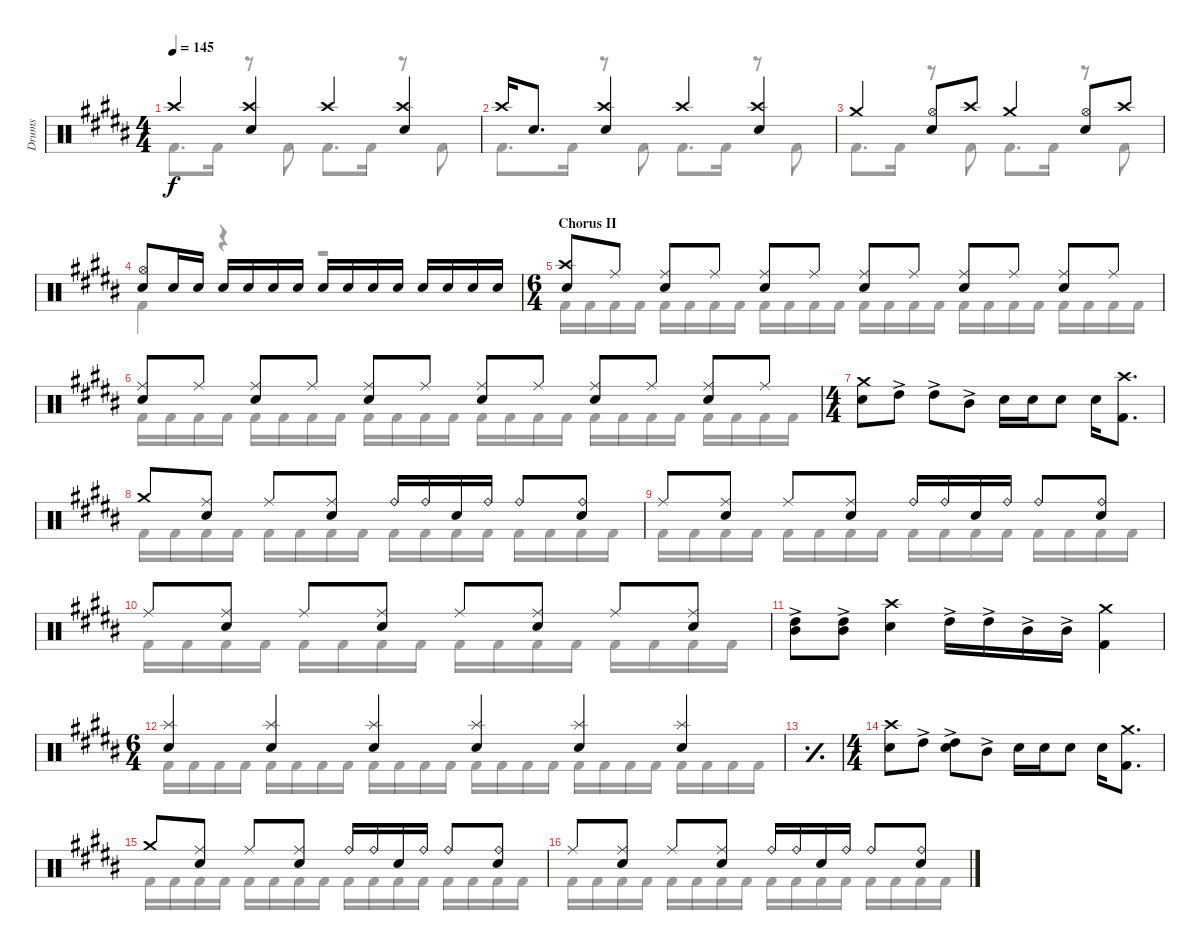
\defaultSystemsLayout 4
\bracketExtendMode groupsimilarinstruments
\otherSystemsTrackNameOrientation horizontal
\track ("Drumkit" "Drums") {multiBarRest instrument percussion}
\staff {score}
\articulation defaults
\voice
\ts (4 4)
\tempo 145
\clef neutral
\ks b "Crash high (hit)"{acc forcenatural}.4{dy f}
("Snare (hit) 2"{acc forcenatural} "Crash high (hit)"{acc forcenatural}).4 "Crash high (hit)"{acc forcenatural}.4 ("Snare (hit) 2"{acc forcenatural} "Crash high (hit)"{acc forcenatural}).4 |
"Crash high (hit)"{acc forcenatural}.16 "Snare (hit) 2"{acc forcenatural}.8{d} ("Snare (hit) 2"{acc forcenatural} "Crash high (hit)"{acc forcenatural}).4 "Crash high (hit)"{acc forcenatural}.4 ("Snare (hit) 2"{acc forcenatural} "Crash high (hit)"{acc forcenatural}).4 |
"Crash medium (hit)"{acc forcenatural}.4 ("Hi-Hat (open)"{acc forcenatural} "Snare (hit) 2"{acc forcenatural}).8 "Crash high (hit)"{acc forcenatural}.8 "Crash medium (hit)"{acc forcenatural}.4 ("Snare (hit) 2"{acc forcenatural} "Hi-Hat (open)"{acc forcenatural}).8 "Crash high (hit)"{acc forcenatural}.8 |
("Hi-Hat (open)"{acc forcenatural} "Snare (hit) 2"{acc forcenatural}).8 "Snare (hit) 2"{acc forcenatural}.16 "Snare (hit) 2"{acc forcenatural}.16 "Snare (hit) 2"{acc forcenatural}.16 "Snare (hit) 2"{acc forcenatural}.16 "Snare (hit) 2"{acc forcenatural}.16 "Snare (hit) 2"{acc forcenatural}.16 "Snare (hit) 2"{acc forcenatural}.16 "Snare (hit) 2"{acc forcenatural}.16 "Snare (hit) 2"{acc forcenatural}.16 "Snare (hit) 2"{acc forcenatural}.16 "Snare (hit) 2"{acc forcenatural}.16 "Snare (hit) 2"{acc forcenatural}.16 "Snare (hit) 2"{acc forcenatural}.16 "Snare (hit) 2"{acc forcenatural}.16 |
\ts (6 4)
\beaming (8 2 2 2 2 2 2)
\section ("" "Chorus II")
("Snare (hit) 2"{acc forcenatural} "Crash high (hit)"{acc forcenatural}).8 "Ride (middle)"{acc forcenatural}.8 ("Snare (hit) 2"{acc forcenatural} "Ride (middle)"{acc forcenatural}).8 "Ride (middle)"{acc forcenatural}.8 ("Snare (hit) 2"{acc forcenatural} "Ride (middle)"{acc forcenatural}).8 "Ride (middle)"{acc forcenatural}.8 ("Snare (hit) 2"{acc forcenatural} "Ride (middle)"{acc forcenatural}).8 "Ride (middle)"{acc forcenatural}.8 ("Snare (hit) 2"{acc forcenatural} "Ride (middle)"{acc forcenatural}).8 "Ride (middle)"{acc forcenatural}.8 ("Snare (hit) 2"{acc forcenatural} "Ride (middle)"{acc forcenatural}).8 "Ride (middle)"{acc forcenatural}.8 |
("Snare (hit) 2"{acc forcenatural} "Ride (middle)"{acc forcenatural}).8 "Ride (middle)"{acc forcenatural}.8 ("Snare (hit) 2"{acc forcenatural} "Ride (middle)"{acc forcenatural}).8 "Ride (middle)"{acc forcenatural}.8 ("Snare (hit) 2"{acc forcenatural} "Ride (middle)"{acc forcenatural}).8 "Ride (middle)"{acc forcenatural}.8 ("Snare (hit) 2"{acc forcenatural} "Ride (middle)"{acc forcenatural}).8 "Ride (middle)"{acc forcenatural}.8 ("Snare (hit) 2"{acc forcenatural} "Ride (middle)"{acc forcenatural}).8 "Ride (middle)"{acc forcenatural}.8 ("Snare (hit) 2"{acc forcenatural} "Ride (middle)"{acc forcenatural}).8 "Ride (middle)"{acc forcenatural}.8 |
\ts (4 4)
("Snare (hit) 2"{acc forcenatural} "Crash medium (hit)"{acc forcenatural}).8 "High Tom (hit)"{ac acc forcenatural}.8 "High Tom (hit)"{ac acc forcenatural}.8 "Mid Tom (hit)"{ac acc forcenatural}.8 "Snare (hit) 2"{acc forcenatural}.16 "Snare (hit) 2"{acc forcenatural}.16 "Snare (hit) 2"{acc forcenatural}.8 "Snare (hit) 2"{acc forcenatural}.16 ("Kick (hit) 2"{acc forcenatural} "Crash high (hit)"{acc forcenatural}).8{d} |
"Crash medium (hit)"{acc forcenatural}.8 ("Ride (middle)"{acc forcenatural} "Snare (hit) 2"{acc forcenatural}).8 "Ride (middle)"{acc forcenatural}.8 ("Ride (middle)"{acc forcenatural} "Snare (hit) 2"{acc forcenatural}).8 "Ride (bell)"{acc forcenatural}.16 "Ride (bell)"{acc forcenatural}.16 "Snare (hit) 2"{acc forcenatural}.16 "Ride (bell)"{acc forcenatural}.16 "Ride (bell)"{acc forcenatural}.8 ("Snare (hit) 2"{acc forcenatural} "Ride (bell)"{acc forcenatural}).8 |
"Ride (middle)"{acc forcenatural}.8 ("Ride (middle)"{acc forcenatural} "Snare (hit) 2"{acc forcenatural}).8 "Ride (middle)"{acc forcenatural}.8 ("Ride (middle)"{acc forcenatural} "Snare (hit) 2"{acc forcenatural}).8 "Ride (bell)"{acc forcenatural}.16 "Ride (bell)"{acc forcenatural}.16 "Snare (hit) 2"{acc forcenatural}.16 "Ride (bell)"{acc forcenatural}.16 "Ride (bell)"{acc forcenatural}.8 ("Snare (hit) 2"{acc forcenatural} "Ride (bell)"{acc forcenatural}).8 |
"Ride (middle)"{acc forcenatural}.8 ("Snare (hit) 2"{acc forcenatural} "Ride (middle)"{acc forcenatural}).8 "Ride (middle)"{acc forcenatural}.8 ("Snare (hit) 2"{acc forcenatural} "Ride (middle)"{acc forcenatural}).8 "Ride (middle)"{acc forcenatural}.8 ("Snare (hit) 2"{acc forcenatural} "Ride (middle)"{acc forcenatural}).8 "Ride (middle)"{acc forcenatural}.8 ("Snare (hit) 2"{acc forcenatural} "Ride (middle)"{acc forcenatural}).8 |
("Mid Tom (hit)"{ac acc forcenatural} "High Tom (hit)"{ac acc forcenatural}).8 ("Mid Tom (hit)"{ac acc forcenatural} "High Tom (hit)"{ac acc forcenatural}).8 ("Snare (hit) 2"{acc forcenatural} "Crash high (hit)"{acc forcenatural}).4 "High Tom (hit)"{ac acc forcenatural}.16 "High Tom (hit)"{ac acc forcenatural}.16 "Mid Tom (hit)"{ac acc forcenatural}.16 "Mid Tom (hit)"{ac acc forcenatural}.16 ("Kick (hit) 2"{acc forcenatural} "Crash medium (hit)"{acc forcenatural}).4 |
\ts (6 4)
("Snare (hit) 2"{acc forcenatural} "Splash (hit)"{acc forcenatural}).4 ("Snare (hit) 2"{acc forcenatural} "Splash (hit)"{acc forcenatural}).4 ("Snare (hit) 2"{acc forcenatural} "Splash (hit)"{acc forcenatural}).4 ("Snare (hit) 2"{acc forcenatural} "Splash (hit)"{acc forcenatural}).4 ("Snare (hit) 2"{acc forcenatural} "Splash (hit)"{acc forcenatural}).4 ("Snare (hit) 2"{acc forcenatural} "Splash (hit)"{acc forcenatural}).4 |
\simile simple
|
\ts (4 4)
\simile none
("Snare (hit) 2"{acc forcenatural} "Crash high (hit)"{acc forcenatural}).8 "High Tom (hit)"{ac acc forcenatural}.8 ("High Tom (hit)"{ac acc forcenatural} "Snare (hit) 2"{acc forcenatural}).8 "Mid Tom (hit)"{ac acc forcenatural}.8 "Snare (hit) 2"{acc forcenatural}.16 "Snare (hit) 2"{acc forcenatural}.16 "Snare (hit) 2"{acc forcenatural}.8 "Snare (hit) 2"{acc forcenatural}.16 ("Kick (hit) 2"{acc forcenatural} "Crash medium (hit)"{acc forcenatural}).8{d} |
"Crash medium (hit)"{acc forcenatural}.8 ("Ride (middle)"{acc forcenatural} "Snare (hit) 2"{acc forcenatural}).8 "Ride (middle)"{acc forcenatural}.8 ("Ride (middle)"{acc forcenatural} "Snare (hit) 2"{acc forcenatural}).8 "Ride (bell)"{acc forcenatural}.16 "Ride (bell)"{acc forcenatural}.16 "Snare (hit) 2"{acc forcenatural}.16 "Ride (bell)"{acc forcenatural}.16 "Ride (bell)"{acc forcenatural}.8 ("Snare (hit) 2"{acc forcenatural} "Ride (bell)"{acc forcenatural}).8 |
"Ride (middle)"{acc forcenatural}.8 ("Ride (middle)"{acc forcenatural} "Snare (hit) 2"{acc forcenatural}).8 "Ride (middle)"{acc forcenatural}.8 ("Ride (middle)"{acc forcenatural} "Snare (hit) 2"{acc forcenatural}).8 "Ride (bell)"{acc forcenatural}.16 "Ride (bell)"{acc forcenatural}.16 "Snare (hit) 2"{acc forcenatural}.16 "Ride (bell)"{acc forcenatural}.16 "Ride (bell)"{acc forcenatural}.8 ("Snare (hit) 2"{acc forcenatural} "Ride (bell)"{acc forcenatural}).8
\voice
\clef neutral
\ottava regular
\simile none
\ks b "Kick (hit) 2"{acc forcenatural}.8{d dy f} "Kick (hit) 2"{acc forcenatural}.16
r.8 "Kick (hit) 2"{acc forcenatural}.8 "Kick (hit) 2"{acc forcenatural}.8{d} "Kick (hit) 2"{acc forcenatural}.16 r.8 "Kick (hit) 2"{acc forcenatural}.8 |
"Kick (hit) 2"{acc forcenatural}.8{d} "Kick (hit) 2"{acc forcenatural}.16 r.8 "Kick (hit) 2"{acc forcenatural}.8 "Kick (hit) 2"{acc forcenatural}.8{d} "Kick (hit) 2"{acc forcenatural}.16 r.8 "Kick (hit) 2"{acc forcenatural}.8 |
"Kick (hit) 2"{acc forcenatural}.8{d} "Kick (hit) 2"{acc forcenatural}.16 r.8 "Kick (hit) 2"{acc forcenatural}.8 "Kick (hit) 2"{acc forcenatural}.8{d} "Kick (hit) 2"{acc forcenatural}.16 r.8 "Kick (hit) 2"{acc forcenatural}.8 |
"Kick (hit) 2"{acc forcenatural}.4 r.4 r.2 |
"Kick (hit) 2"{acc forcenatural}.16 "Kick (hit) 2"{acc forcenatural}.16 "Kick (hit) 2"{acc forcenatural}.16 "Kick (hit) 2"{acc forcenatural}.16 "Kick (hit) 2"{acc forcenatural}.16 "Kick (hit) 2"{acc forcenatural}.16 "Kick (hit) 2"{acc forcenatural}.16 "Kick (hit) 2"{acc forcenatural}.16 "Kick (hit) 2"{acc forcenatural}.16 "Kick (hit) 2"{acc forcenatural}.16 "Kick (hit) 2"{acc forcenatural}.16 "Kick (hit) 2"{acc forcenatural}.16 "Kick (hit) 2"{acc forcenatural}.16 "Kick (hit) 2"{acc forcenatural}.16 "Kick (hit) 2"{acc forcenatural}.16 "Kick (hit) 2"{acc forcenatural}.16 "Kick (hit) 2"{acc forcenatural}.16 "Kick (hit) 2"{acc forcenatural}.16 "Kick (hit) 2"{acc forcenatural}.16 "Kick (hit) 2"{acc forcenatural}.16 "Kick (hit) 2"{acc forcenatural}.16 "Kick (hit) 2"{acc forcenatural}.16 "Kick (hit) 2"{acc forcenatural}.16 "Kick (hit) 2"{acc forcenatural}.16 |
"Kick (hit) 2"{acc forcenatural}.16 "Kick (hit) 2"{acc forcenatural}.16 "Kick (hit) 2"{acc forcenatural}.16 "Kick (hit) 2"{acc forcenatural}.16 "Kick (hit) 2"{acc forcenatural}.16 "Kick (hit) 2"{acc forcenatural}.16 "Kick (hit) 2"{acc forcenatural}.16 "Kick (hit) 2"{acc forcenatural}.16 "Kick (hit) 2"{acc forcenatural}.16 "Kick (hit) 2"{acc forcenatural}.16 "Kick (hit) 2"{acc forcenatural}.16 "Kick (hit) 2"{acc forcenatural}.16 "Kick (hit) 2"{acc forcenatural}.16 "Kick (hit) 2"{acc forcenatural}.16 "Kick (hit) 2"{acc forcenatural}.16 "Kick (hit) 2"{acc forcenatural}.16 "Kick (hit) 2"{acc forcenatural}.16 "Kick (hit) 2"{acc forcenatural}.16 "Kick (hit) 2"{acc forcenatural}.16 "Kick (hit) 2"{acc forcenatural}.16 "Kick (hit) 2"{acc forcenatural}.16 "Kick (hit) 2"{acc forcenatural}.16 "Kick (hit) 2"{acc forcenatural}.16 "Kick (hit) 2"{acc forcenatural}.16 |
|
"Kick (hit) 2"{acc forcenatural}.16 "Kick (hit) 2"{acc forcenatural}.16 "Kick (hit) 2"{acc forcenatural}.16 "Kick (hit) 2"{acc forcenatural}.16 "Kick (hit) 2"{acc forcenatural}.16 "Kick (hit) 2"{acc forcenatural}.16 "Kick (hit) 2"{acc forcenatural}.16 "Kick (hit) 2"{acc forcenatural}.16 "Kick (hit) 2"{acc forcenatural}.16 "Kick (hit) 2"{acc forcenatural}.16 "Kick (hit) 2"{acc forcenatural}.16 "Kick (hit) 2"{acc forcenatural}.16 "Kick (hit) 2"{acc forcenatural}.16 "Kick (hit) 2"{acc forcenatural}.16 "Kick (hit) 2"{acc forcenatural}.16 "Kick (hit) 2"{acc forcenatural}.16 |
"Kick (hit) 2"{acc forcenatural}.16 "Kick (hit) 2"{acc forcenatural}.16 "Kick (hit) 2"{acc forcenatural}.16 "Kick (hit) 2"{acc forcenatural}.16 "Kick (hit) 2"{acc forcenatural}.16 "Kick (hit) 2"{acc forcenatural}.16 "Kick (hit) 2"{acc forcenatural}.16 "Kick (hit) 2"{acc forcenatural}.16 "Kick (hit) 2"{acc forcenatural}.16 "Kick (hit) 2"{acc forcenatural}.16 "Kick (hit) 2"{acc forcenatural}.16 "Kick (hit) 2"{acc forcenatural}.16 "Kick (hit) 2"{acc forcenatural}.16 "Kick (hit) 2"{acc forcenatural}.16 "Kick (hit) 2"{acc forcenatural}.16 "Kick (hit) 2"{acc forcenatural}.16 |
"Kick (hit) 2"{acc forcenatural}.16 "Kick (hit) 2"{acc forcenatural}.16 "Kick (hit) 2"{acc forcenatural}.16 "Kick (hit) 2"{acc forcenatural}.16 "Kick (hit) 2"{acc forcenatural}.16 "Kick (hit) 2"{acc forcenatural}.16 "Kick (hit) 2"{acc forcenatural}.16 "Kick (hit) 2"{acc forcenatural}.16 "Kick (hit) 2"{acc forcenatural}.16 "Kick (hit) 2"{acc forcenatural}.16 "Kick (hit) 2"{acc forcenatural}.16 "Kick (hit) 2"{acc forcenatural}.16 "Kick (hit) 2"{acc forcenatural}.16 "Kick (hit) 2"{acc forcenatural}.16 "Kick (hit) 2"{acc forcenatural}.16 "Kick (hit) 2"{acc forcenatural}.16 |
|
"Kick (hit) 2"{acc forcenatural}.16 "Kick (hit) 2"{acc forcenatural}.16 "Kick (hit) 2"{acc forcenatural}.16 "Kick (hit) 2"{acc forcenatural}.16 "Kick (hit) 2"{acc forcenatural}.16 "Kick (hit) 2"{acc forcenatural}.16 "Kick (hit) 2"{acc forcenatural}.16 "Kick (hit) 2"{acc forcenatural}.16 "Kick (hit) 2"{acc forcenatural}.16 "Kick (hit) 2"{acc forcenatural}.16 "Kick (hit) 2"{acc forcenatural}.16 "Kick (hit) 2"{acc forcenatural}.16 "Kick (hit) 2"{acc forcenatural}.16 "Kick (hit) 2"{acc forcenatural}.16 "Kick (hit) 2"{acc forcenatural}.16 "Kick (hit) 2"{acc forcenatural}.16 "Kick (hit) 2"{acc forcenatural}.16 "Kick (hit) 2"{acc forcenatural}.16 "Kick (hit) 2"{acc forcenatural}.16 "Kick (hit) 2"{acc forcenatural}.16 "Kick (hit) 2"{acc forcenatural}.16 "Kick (hit) 2"{acc forcenatural}.16 "Kick (hit) 2"{acc forcenatural}.16 "Kick (hit) 2"{acc forcenatural}.16 |
\simile simple
|
\simile none
|
"Kick (hit) 2"{acc forcenatural}.16 "Kick (hit) 2"{acc forcenatural}.16 "Kick (hit) 2"{acc forcenatural}.16 "Kick (hit) 2"{acc forcenatural}.16 "Kick (hit) 2"{acc forcenatural}.16 "Kick (hit) 2"{acc forcenatural}.16 "Kick (hit) 2"{acc forcenatural}.16 "Kick (hit) 2"{acc forcenatural}.16 "Kick (hit) 2"{acc forcenatural}.16 "Kick (hit) 2"{acc forcenatural}.16 "Kick (hit) 2"{acc forcenatural}.16 "Kick (hit) 2"{acc forcenatural}.16 "Kick (hit) 2"{acc forcenatural}.16 "Kick (hit) 2"{acc forcenatural}.16 "Kick (hit) 2"{acc forcenatural}.16 "Kick (hit) 2"{acc forcenatural}.16 |
"Kick (hit) 2"{acc forcenatural}.16 "Kick (hit) 2"{acc forcenatural}.16 "Kick (hit) 2"{acc forcenatural}.16 "Kick (hit) 2"{acc forcenatural}.16 "Kick (hit) 2"{acc forcenatural}.16 "Kick (hit) 2"{acc forcenatural}.16 "Kick (hit) 2"{acc forcenatural}.16 "Kick (hit) 2"{acc forcenatural}.16 "Kick (hit) 2"{acc forcenatural}.16 "Kick (hit) 2"{acc forcenatural}.16 "Kick (hit) 2"{acc forcenatural}.16 "Kick (hit) 2"{acc forcenatural}.16 "Kick (hit) 2"{acc forcenatural}.16 "Kick (hit) 2"{acc forcenatural}.16 "Kick (hit) 2"{acc forcenatural}.16 "Kick (hit) 2"{acc forcenatural}.16
